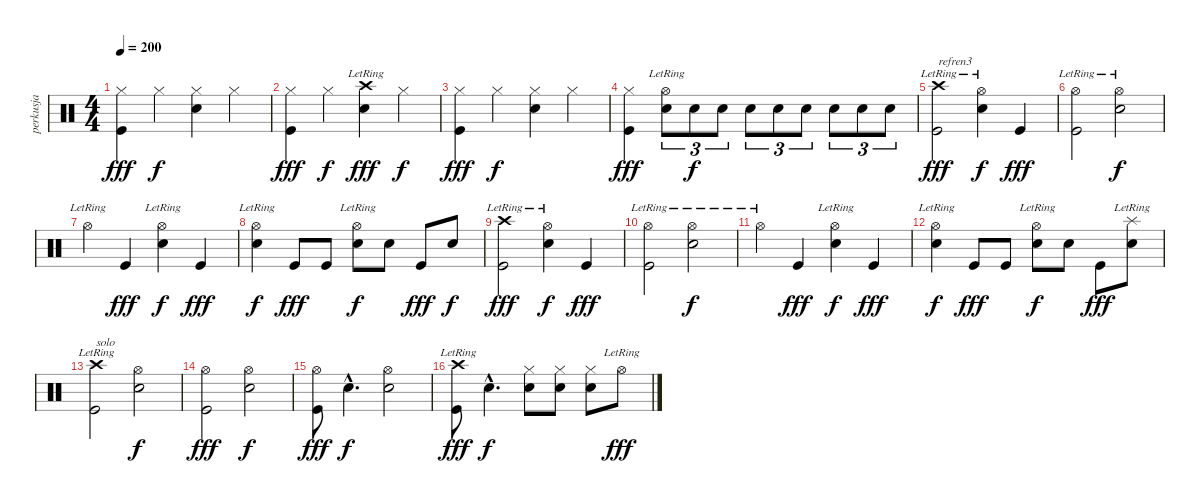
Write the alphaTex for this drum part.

\track ("perkusja" "perkusja") {instrument percussion}
\staff {score}
\articulation defaults
\ts (4 4)
\tempo 200
\clef neutral
\ks c
("Hi-Hat (closed)" "Kick (hit)").4{dy fff} "Hi-Hat (closed)".4{dy f} ("Hi-Hat (closed)" "Electric Snare (hit)").4 "Hi-Hat (closed)".4 |
("Hi-Hat (closed)" "Kick (hit)").4{dy fff} "Hi-Hat (closed)".4{dy f} ("Crash high (hit)"{lr} "Electric Snare (hit)").4{dy fff} "Hi-Hat (closed)".4{dy f} |
("Hi-Hat (closed)" "Kick (hit)").4{dy fff} "Hi-Hat (closed)".4{dy f} ("Hi-Hat (closed)" "Electric Snare (hit)").4 "Hi-Hat (closed)".4 |
("Hi-Hat (closed)" "Kick (hit)").4{dy fff} ("Hi-Hat (open)"{lr} "Electric Snare (hit)").8{tu (3 2)} "Electric Snare (hit)".8{tu (3 2) dy f} "Electric Snare (hit)".8{tu (3 2)} "Electric Snare (hit)".8{tu (3 2)} "Electric Snare (hit)".8{tu (3 2)} "Electric Snare (hit)".8{tu (3 2)} "Electric Snare (hit)".8{tu (3 2)} "Electric Snare (hit)".8{tu (3 2)} "Electric Snare (hit)".8{tu (3 2)} |
("Crash high (hit)"{lr} "Kick (hit)").2{txt "refren3" dy fff} ("Hi-Hat (open)"{lr} "Electric Snare (hit)").4{dy f} "Kick (hit)".4{dy fff} |
("Hi-Hat (open)"{lr} "Kick (hit)").2 ("Hi-Hat (open)"{lr} "Electric Snare (hit)").2{dy f} |
"Hi-Hat (open)"{lr}.4 "Kick (hit)".4{dy fff} ("Hi-Hat (open)"{lr} "Electric Snare (hit)").4{dy f} "Kick (hit)".4{dy fff} |
("Hi-Hat (open)"{lr} "Electric Snare (hit)").4{dy f} "Kick (hit)".8{dy fff} "Kick (hit)".8 ("Hi-Hat (open)"{lr} "Electric Snare (hit)").8{dy f} "Electric Snare (hit)".8 "Kick (hit)".8{dy fff} "Electric Snare (hit)".8{dy f} |
("Crash high (hit)"{lr} "Kick (hit)").2{dy fff} ("Hi-Hat (open)"{lr} "Electric Snare (hit)").4{dy f} "Kick (hit)".4{dy fff} |
("Hi-Hat (open)"{lr} "Kick (hit)").2 ("Hi-Hat (open)"{lr} "Electric Snare (hit)").2{dy f} |
"Hi-Hat (open)"{lr}.4 "Kick (hit)".4{dy fff} ("Hi-Hat (open)"{lr} "Electric Snare (hit)").4{dy f} "Kick (hit)".4{dy fff} |
("Hi-Hat (open)"{lr} "Electric Snare (hit)").4{dy f} "Kick (hit)".8{dy fff} "Kick (hit)".8 ("Hi-Hat (open)"{lr} "Electric Snare (hit)").8{dy f} "Electric Snare (hit)".8 "Kick (hit)".8{dy fff} ("Splash (hit)"{lr} "Electric Snare (hit)").8 |
("Crash high (hit)"{lr} "Kick (hit)").2{txt "solo"} ("Hi-Hat (open)" "Electric Snare (hit)").2{dy f} |
("Hi-Hat (open)" "Kick (hit)").2{dy fff} ("Hi-Hat (open)" "Electric Snare (hit)").2{dy f} |
("Hi-Hat (open)" "Kick (hit)").8{dy fff} "Electric Snare (hit)"{hac}.4{d dy f} ("Hi-Hat (open)" "Electric Snare (hit)").2 |
("Crash high (hit)"{lr} "Kick (hit)").8{dy fff} "Electric Snare (hit)"{hac}.4{d dy f} ("Hi-Hat (closed)" "Electric Snare (hit)").8 ("Hi-Hat (closed)" "Electric Snare (hit)").8 ("Hi-Hat (closed)" "Electric Snare (hit)").8 "Hi-Hat (open)"{lr}.8{dy fff}
